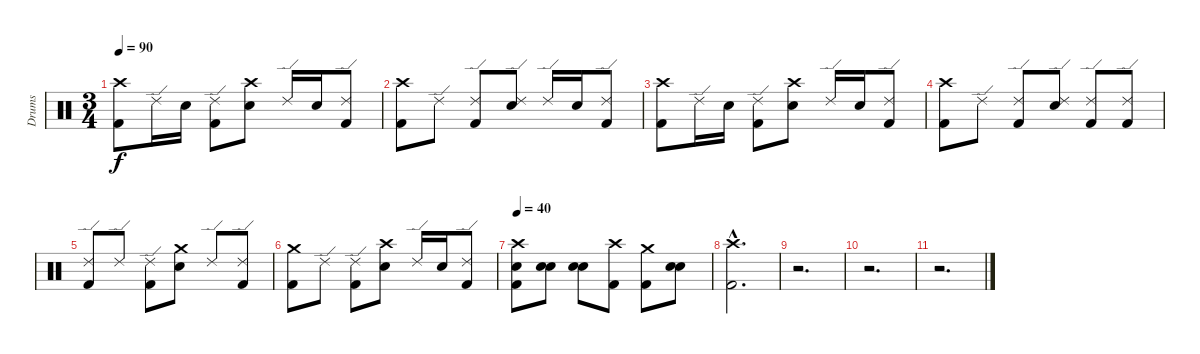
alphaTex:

\track ("Drums" "Drums") {instrument percussion}
\staff {score}
\articulation defaults
\ts (3 4)
\tempo 90
\clef neutral
\ks c
("Crash high (hit)" "Kick (hit) 2").8{dy f} "Ride (edge) 2".16 "Electric Snare (hit)".16 ("Ride (edge) 2" "Kick (hit) 2").8 ("Crash high (hit)" "Electric Snare (hit)").8 "Ride (edge) 2".16 "Electric Snare (hit)".16 ("Ride (edge) 2" "Kick (hit) 2").8 |
("Crash high (hit)" "Kick (hit) 2").8 "Ride (edge) 2".8 ("Ride (edge) 2" "Kick (hit) 2").8 ("Ride (edge) 2" "Electric Snare (hit)").8 "Ride (edge) 2".16 "Electric Snare (hit)".16 ("Ride (edge) 2" "Kick (hit) 2").8 |
("Crash high (hit)" "Kick (hit) 2").8 "Ride (edge) 2".16 "Electric Snare (hit)".16 ("Ride (edge) 2" "Kick (hit) 2").8 ("Crash high (hit)" "Electric Snare (hit)").8 "Ride (edge) 2".16 "Electric Snare (hit)".16 ("Ride (edge) 2" "Kick (hit) 2").8 |
("Crash high (hit)" "Kick (hit) 2").8 "Ride (edge) 2".8 ("Ride (edge) 2" "Kick (hit) 2").8 ("Ride (edge) 2" "Electric Snare (hit)").8 ("Ride (edge) 2" "Kick (hit) 2").8 ("Ride (edge) 2" "Kick (hit) 2").8 |
("Ride (edge) 2" "Kick (hit) 2").8 "Ride (edge) 2".8 ("Ride (edge) 2" "Kick (hit) 2").8 ("Crash medium (hit)" "Electric Snare (hit)").8 "Ride (edge) 2".8 ("Ride (edge) 2" "Kick (hit) 2").8 |
("Crash medium (hit)" "Kick (hit) 2").8 "Ride (edge) 2".8 ("Ride (edge) 2" "Kick (hit) 2").8 ("Crash high (hit)" "Electric Snare (hit)").8 "Ride (edge) 2".16 "Electric Snare (hit)".16 ("Ride (edge) 2" "Kick (hit) 2").8 |
\tempo 40
("Crash high (hit)" "Electric Snare (hit)" "Kick (hit) 2").8 ("Electric Snare (hit)" "Electric Snare (hit)").8{bu 60} ("Electric Snare (hit)" "Electric Snare (hit)").8{bu 60} ("Crash high (hit)" "Kick (hit) 2").8 ("Crash medium (hit)" "Kick (hit) 2").8 ("Electric Snare (hit)" "Electric Snare (hit)").8{bu 60} |
("Crash high (hit)"{hac} "Kick (hit) 2"{hac}).2{d} |
r.2{d} |
r.2{d} |
r.2{d}
